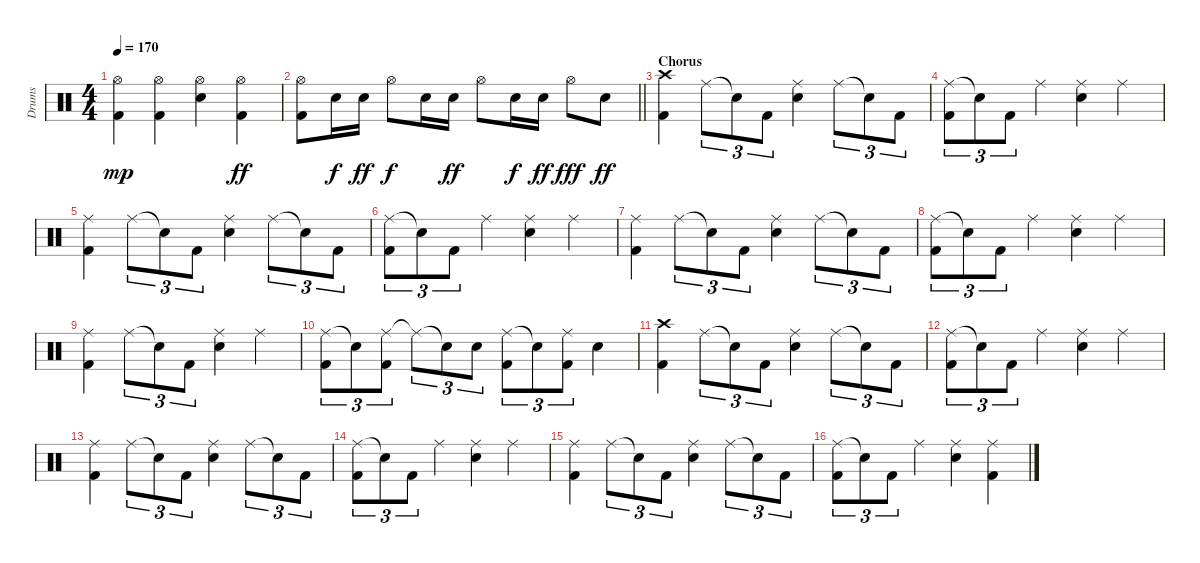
\track ("Drums" "Drums") {instrument percussion}
\staff {score}
\articulation defaults
\ts (4 4)
\tempo 170
\clef neutral
\ks c
("Hi-Hat (open)" "Kick (hit) 2").4{dy mp} ("Hi-Hat (open)" "Kick (hit) 2").4 ("Hi-Hat (open)" "Snare (hit) 2").4 ("Hi-Hat (open)" "Kick (hit) 2").4{dy ff} |
\barLineRight lightlight
("Hi-Hat (open)" "Kick (hit) 2").8 "Snare (hit) 2".16{dy f} "Snare (hit) 2".16{dy ff} "Hi-Hat (open)".8{dy f} "Snare (hit) 2".16 "Snare (hit) 2".16{dy ff} "Hi-Hat (open)".8 "Snare (hit) 2".16{dy f} "Snare (hit) 2".16{dy ff} "Hi-Hat (open)".8{dy fff} "Snare (hit) 2".8{dy ff} |
\section ("" "Chorus")
("Crash high (hit)" "Kick (hit) 2").4 "Ride (middle)".8{tu (3 2)} "Snare (hit)"{t}.8{tu (3 2)} "Kick (hit) 2".8{tu (3 2)} ("Ride (middle)" "Snare (hit) 2").4 "Ride (middle)".8{tu (3 2)} "Snare (hit)"{t}.8{tu (3 2)} "Kick (hit) 2".8{tu (3 2)} |
("Ride (middle)" "Kick (hit) 2").8{tu (3 2)} "Snare (hit)"{t}.8{tu (3 2)} "Kick (hit) 2".8{tu (3 2)} "Ride (middle)".4 ("Ride (middle)" "Snare (hit) 2").4 "Ride (middle)".4 |
("Ride (middle)" "Kick (hit) 2").4 "Ride (middle)".8{tu (3 2)} "Snare (hit)"{t}.8{tu (3 2)} "Kick (hit) 2".8{tu (3 2)} ("Ride (middle)" "Snare (hit) 2").4 "Ride (middle)".8{tu (3 2)} "Snare (hit)"{t}.8{tu (3 2)} "Kick (hit) 2".8{tu (3 2)} |
("Ride (middle)" "Kick (hit) 2").8{tu (3 2)} "Snare (hit)"{t}.8{tu (3 2)} "Kick (hit) 2".8{tu (3 2)} "Ride (middle)".4 ("Ride (middle)" "Snare (hit) 2").4 "Ride (middle)".4 |
("Ride (middle)" "Kick (hit) 2").4 "Ride (middle)".8{tu (3 2)} "Snare (hit)"{t}.8{tu (3 2)} "Kick (hit) 2".8{tu (3 2)} ("Ride (middle)" "Snare (hit) 2").4 "Ride (middle)".8{tu (3 2)} "Snare (hit)"{t}.8{tu (3 2)} "Kick (hit) 2".8{tu (3 2)} |
("Ride (middle)" "Kick (hit) 2").8{tu (3 2)} "Snare (hit)"{t}.8{tu (3 2)} "Kick (hit) 2".8{tu (3 2)} "Ride (middle)".4 ("Ride (middle)" "Snare (hit) 2").4 "Ride (middle)".4 |
("Ride (middle)" "Kick (hit) 2").4 "Ride (middle)".8{tu (3 2)} "Snare (hit)"{t}.8{tu (3 2)} "Kick (hit) 2".8{tu (3 2)} ("Ride (middle)" "Snare (hit) 2").4 "Ride (middle)".4 |
("Ride (middle)" "Kick (hit) 2").8{tu (3 2)} "Snare (hit)"{t}.8{tu (3 2)} ("Ride (middle)" "Kick (hit) 2").8{tu (3 2)} "Ride (middle)"{t}.8{tu (3 2)} "Snare (hit)"{t}.8{tu (3 2)} "Snare (hit) 2".8{tu (3 2)} ("Ride (middle)" "Kick (hit) 2").8{tu (3 2)} "Snare (hit)"{t}.8{tu (3 2)} ("Ride (middle)" "Kick (hit) 2").8{tu (3 2)} "Snare (hit) 2".4 |
("Crash high (hit)" "Kick (hit) 2").4 "Ride (middle)".8{tu (3 2)} "Snare (hit)"{t}.8{tu (3 2)} "Kick (hit) 2".8{tu (3 2)} ("Ride (middle)" "Snare (hit) 2").4 "Ride (middle)".8{tu (3 2)} "Snare (hit)"{t}.8{tu (3 2)} "Kick (hit) 2".8{tu (3 2)} |
("Ride (middle)" "Kick (hit) 2").8{tu (3 2)} "Snare (hit)"{t}.8{tu (3 2)} "Kick (hit) 2".8{tu (3 2)} "Ride (middle)".4 ("Ride (middle)" "Snare (hit) 2").4 "Ride (middle)".4 |
("Ride (middle)" "Kick (hit) 2").4 "Ride (middle)".8{tu (3 2)} "Snare (hit)"{t}.8{tu (3 2)} "Kick (hit) 2".8{tu (3 2)} ("Ride (middle)" "Snare (hit) 2").4 "Ride (middle)".8{tu (3 2)} "Snare (hit)"{t}.8{tu (3 2)} "Kick (hit) 2".8{tu (3 2)} |
("Ride (middle)" "Kick (hit) 2").8{tu (3 2)} "Snare (hit)"{t}.8{tu (3 2)} "Kick (hit) 2".8{tu (3 2)} "Ride (middle)".4 ("Ride (middle)" "Snare (hit) 2").4 "Ride (middle)".4 |
("Ride (middle)" "Kick (hit) 2").4 "Ride (middle)".8{tu (3 2)} "Snare (hit)"{t}.8{tu (3 2)} "Kick (hit) 2".8{tu (3 2)} ("Ride (middle)" "Snare (hit) 2").4 "Ride (middle)".8{tu (3 2)} "Snare (hit)"{t}.8{tu (3 2)} "Kick (hit) 2".8{tu (3 2)} |
("Ride (middle)" "Kick (hit) 2").8{tu (3 2)} "Snare (hit)"{t}.8{tu (3 2)} "Kick (hit) 2".8{tu (3 2)} "Ride (middle)".4 ("Ride (middle)" "Snare (hit) 2").4 ("Ride (middle)" "Kick (hit) 2").4
